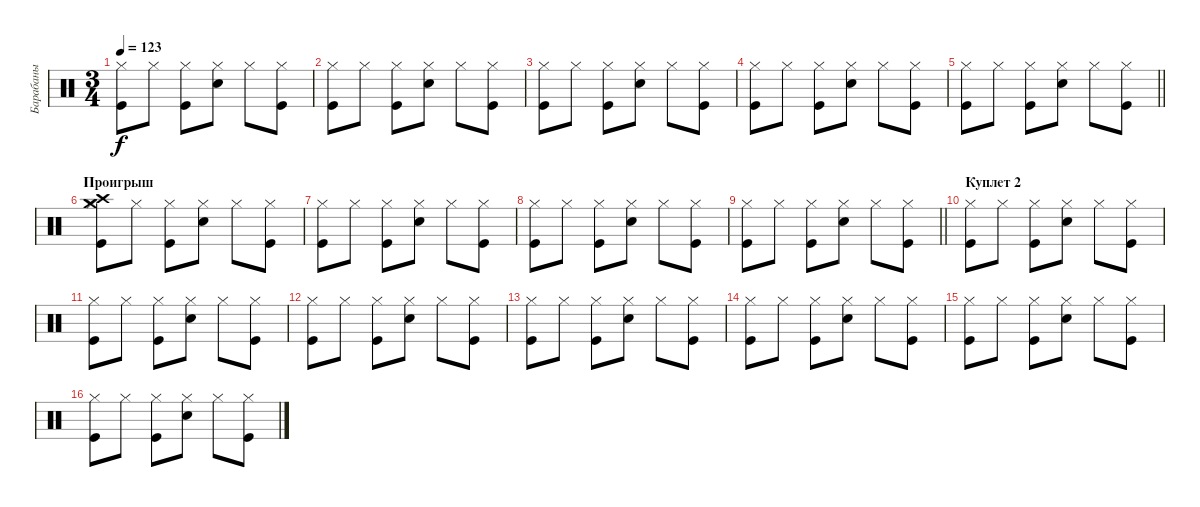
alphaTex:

\track ("Барабаны" "Барабаны") {instrument percussion}
\staff {score}
\articulation defaults
\ts (3 4)
\tempo 123
\clef neutral
\ks c
("Kick (hit)" "Hi-Hat (closed)").8{dy f} "Hi-Hat (closed)".8 ("Kick (hit)" "Hi-Hat (closed)").8 ("Snare (hit) 2" "Hi-Hat (closed)").8 "Hi-Hat (closed)".8 ("Kick (hit)" "Hi-Hat (closed)").8 |
("Kick (hit)" "Hi-Hat (closed)").8 "Hi-Hat (closed)".8 ("Kick (hit)" "Hi-Hat (closed)").8 ("Snare (hit) 2" "Hi-Hat (closed)").8 "Hi-Hat (closed)".8 ("Kick (hit)" "Hi-Hat (closed)").8 |
("Kick (hit)" "Hi-Hat (closed)").8 "Hi-Hat (closed)".8 ("Kick (hit)" "Hi-Hat (closed)").8 ("Snare (hit) 2" "Hi-Hat (closed)").8 "Hi-Hat (closed)".8 ("Kick (hit)" "Hi-Hat (closed)").8 |
("Kick (hit)" "Hi-Hat (closed)").8 "Hi-Hat (closed)".8 ("Kick (hit)" "Hi-Hat (closed)").8 ("Snare (hit) 2" "Hi-Hat (closed)").8 "Hi-Hat (closed)".8 ("Kick (hit)" "Hi-Hat (closed)").8 |
\barLineRight lightlight
("Kick (hit)" "Hi-Hat (closed)").8 "Hi-Hat (closed)".8 ("Kick (hit)" "Hi-Hat (closed)").8 ("Snare (hit) 2" "Hi-Hat (closed)").8 "Hi-Hat (closed)".8 ("Kick (hit)" "Hi-Hat (closed)").8 |
\section ("" "Проигрыш")
("Kick (hit)" "Hi-Hat (closed)" "Crash high (hit)" "Crash medium (hit)").8 "Hi-Hat (closed)".8 ("Kick (hit)" "Hi-Hat (closed)").8 ("Snare (hit) 2" "Hi-Hat (closed)").8 "Hi-Hat (closed)".8 ("Kick (hit)" "Hi-Hat (closed)").8 |
("Kick (hit)" "Hi-Hat (closed)").8 "Hi-Hat (closed)".8 ("Kick (hit)" "Hi-Hat (closed)").8 ("Snare (hit) 2" "Hi-Hat (closed)").8 "Hi-Hat (closed)".8 ("Kick (hit)" "Hi-Hat (closed)").8 |
("Kick (hit)" "Hi-Hat (closed)").8 "Hi-Hat (closed)".8 ("Kick (hit)" "Hi-Hat (closed)").8 ("Snare (hit) 2" "Hi-Hat (closed)").8 "Hi-Hat (closed)".8 ("Kick (hit)" "Hi-Hat (closed)").8 |
\barLineRight lightlight
("Kick (hit)" "Hi-Hat (closed)").8 "Hi-Hat (closed)".8 ("Kick (hit)" "Hi-Hat (closed)").8 ("Snare (hit) 2" "Hi-Hat (closed)").8 "Hi-Hat (closed)".8 ("Kick (hit)" "Hi-Hat (closed)").8 |
\section ("" "Куплет 2")
("Kick (hit)" "Hi-Hat (closed)").8 "Hi-Hat (closed)".8 ("Kick (hit)" "Hi-Hat (closed)").8 ("Snare (hit) 2" "Hi-Hat (closed)").8 "Hi-Hat (closed)".8 ("Kick (hit)" "Hi-Hat (closed)").8 |
("Kick (hit)" "Hi-Hat (closed)").8 "Hi-Hat (closed)".8 ("Kick (hit)" "Hi-Hat (closed)").8 ("Snare (hit) 2" "Hi-Hat (closed)").8 "Hi-Hat (closed)".8 ("Kick (hit)" "Hi-Hat (closed)").8 |
("Kick (hit)" "Hi-Hat (closed)").8 "Hi-Hat (closed)".8 ("Kick (hit)" "Hi-Hat (closed)").8 ("Snare (hit) 2" "Hi-Hat (closed)").8 "Hi-Hat (closed)".8 ("Kick (hit)" "Hi-Hat (closed)").8 |
("Kick (hit)" "Hi-Hat (closed)").8 "Hi-Hat (closed)".8 ("Kick (hit)" "Hi-Hat (closed)").8 ("Snare (hit) 2" "Hi-Hat (closed)").8 "Hi-Hat (closed)".8 ("Kick (hit)" "Hi-Hat (closed)").8 |
("Kick (hit)" "Hi-Hat (closed)").8 "Hi-Hat (closed)".8 ("Kick (hit)" "Hi-Hat (closed)").8 ("Snare (hit) 2" "Hi-Hat (closed)").8 "Hi-Hat (closed)".8 ("Kick (hit)" "Hi-Hat (closed)").8 |
("Kick (hit)" "Hi-Hat (closed)").8 "Hi-Hat (closed)".8 ("Kick (hit)" "Hi-Hat (closed)").8 ("Snare (hit) 2" "Hi-Hat (closed)").8 "Hi-Hat (closed)".8 ("Kick (hit)" "Hi-Hat (closed)").8 |
("Kick (hit)" "Hi-Hat (closed)").8 "Hi-Hat (closed)".8 ("Kick (hit)" "Hi-Hat (closed)").8 ("Snare (hit) 2" "Hi-Hat (closed)").8 "Hi-Hat (closed)".8 ("Kick (hit)" "Hi-Hat (closed)").8
